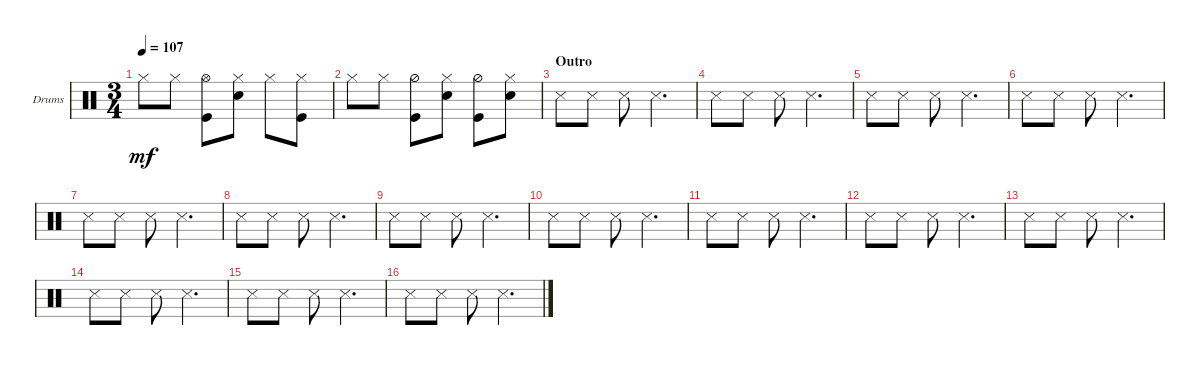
\defaultSystemsLayout 4
\bracketExtendMode groupsimilarinstruments
\firstSystemTrackNameOrientation horizontal
\otherSystemsTrackNameOrientation horizontal
\track ("Drumkit" "Drums") {instrument percussion}
\staff {score}
\articulation defaults
\ts (3 4)
\tempo 107
\clef neutral
\ks c "Hi-Hat (closed)".8{dy mf} "Hi-Hat (closed)".8
("Hi-Hat (open)" "Kick (hit)").8 ("Snare (hit) 2" "Hi-Hat (closed)").8 "Hi-Hat (closed)".8 ("Kick (hit)" "Hi-Hat (closed)").8 |
"Hi-Hat (closed)".8 "Hi-Hat (closed)".8 ("Hi-Hat (half)" "Kick (hit)").8 ("Hi-Hat (closed)" "Snare (hit) 2").8 ("Hi-Hat (half)" "Kick (hit)").8 ("Hi-Hat (closed)" "Snare (hit) 2").8 |
\section ("" "Outro")
"Snare (side stick) 3".8 "Snare (side stick) 3".8 "Snare (side stick) 3".8 "Snare (side stick) 3".4{d} |
"Snare (side stick) 3".8 "Snare (side stick) 3".8 "Snare (side stick) 3".8 "Snare (side stick) 3".4{d} |
"Snare (side stick) 3".8 "Snare (side stick) 3".8 "Snare (side stick) 3".8 "Snare (side stick) 3".4{d} |
"Snare (side stick) 3".8 "Snare (side stick) 3".8 "Snare (side stick) 3".8 "Snare (side stick) 3".4{d} |
"Snare (side stick) 3".8 "Snare (side stick) 3".8 "Snare (side stick) 3".8 "Snare (side stick) 3".4{d} |
"Snare (side stick) 3".8 "Snare (side stick) 3".8 "Snare (side stick) 3".8 "Snare (side stick) 3".4{d} |
"Snare (side stick) 3".8 "Snare (side stick) 3".8 "Snare (side stick) 3".8 "Snare (side stick) 3".4{d} |
"Snare (side stick) 3".8 "Snare (side stick) 3".8 "Snare (side stick) 3".8 "Snare (side stick) 3".4{d} |
"Snare (side stick) 3".8 "Snare (side stick) 3".8 "Snare (side stick) 3".8 "Snare (side stick) 3".4{d} |
"Snare (side stick) 3".8 "Snare (side stick) 3".8 "Snare (side stick) 3".8 "Snare (side stick) 3".4{d} |
"Snare (side stick) 3".8 "Snare (side stick) 3".8 "Snare (side stick) 3".8 "Snare (side stick) 3".4{d} |
"Snare (side stick) 3".8 "Snare (side stick) 3".8 "Snare (side stick) 3".8 "Snare (side stick) 3".4{d} |
"Snare (side stick) 3".8 "Snare (side stick) 3".8 "Snare (side stick) 3".8 "Snare (side stick) 3".4{d} |
"Snare (side stick) 3".8 "Snare (side stick) 3".8 "Snare (side stick) 3".8 "Snare (side stick) 3".4{d}
